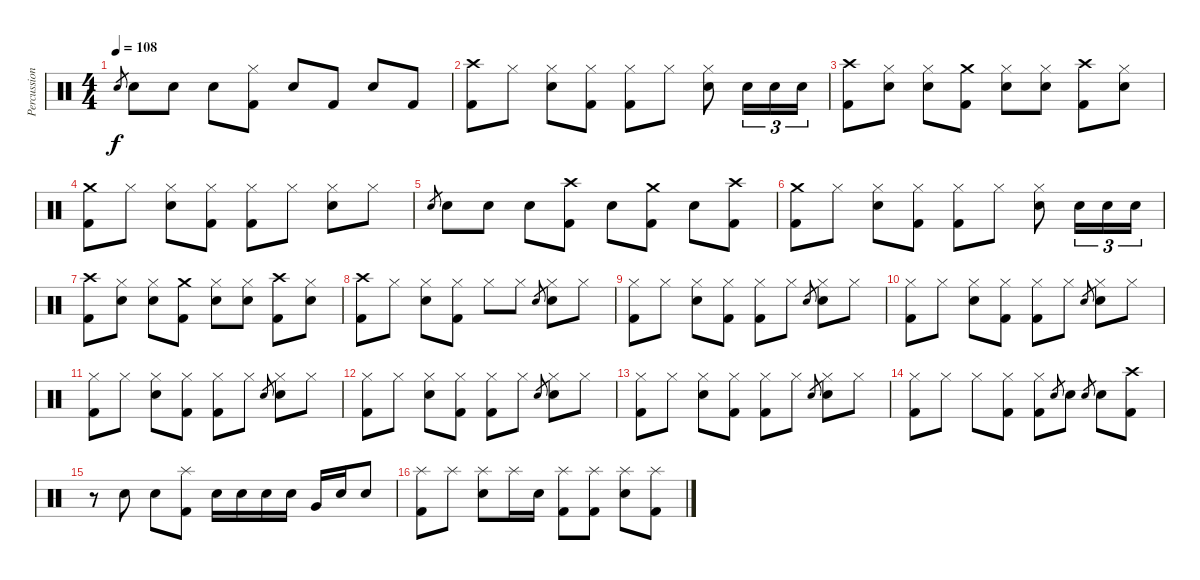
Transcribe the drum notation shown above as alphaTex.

\track ("Percussion" "Percussion") {instrument percussion}
\staff {score}
\articulation defaults
\ts (4 4)
\tempo 108
\clef neutral
\ks c "Snare (hit) 2".8{gr dy f} "Snare (hit) 2".8 "Snare (hit) 2".8 "Snare (hit) 2".8
("Kick (hit) 2" "Hi-Hat (closed)").8 "Snare (hit) 2".8 "Kick (hit) 2".8 "Snare (hit) 2".8 "Kick (hit) 2".8 |
("Kick (hit) 2" "Crash high (hit)").8 "Hi-Hat (closed)".8 ("Snare (hit) 2" "Hi-Hat (closed)").8 ("Kick (hit) 2" "Hi-Hat (closed)").8 ("Kick (hit) 2" "Hi-Hat (closed)").8 "Hi-Hat (closed)".8 ("Snare (hit) 2" "Hi-Hat (closed)").8 "Snare (hit) 2".16{tu (3 2)} "Snare (hit) 2".16{tu (3 2)} "Snare (hit) 2".16{tu (3 2)} |
("Kick (hit) 2" "Crash high (hit)").8 ("Snare (hit) 2" "Hi-Hat (closed)").8 ("Snare (hit) 2" "Hi-Hat (closed)").8 ("Kick (hit) 2" "Crash medium (hit)").8 ("Snare (hit) 2" "Hi-Hat (closed)").8 ("Snare (hit) 2" "Hi-Hat (closed)").8 ("Kick (hit) 2" "Crash high (hit)").8 ("Snare (hit) 2" "Hi-Hat (closed)").8 |
("Kick (hit) 2" "Crash medium (hit)").8 "Hi-Hat (closed)".8 ("Snare (hit) 2" "Hi-Hat (closed)").8 ("Kick (hit) 2" "Hi-Hat (closed)").8 ("Kick (hit) 2" "Hi-Hat (closed)").8 "Hi-Hat (closed)".8 ("Snare (hit) 2" "Hi-Hat (closed)").8 "Hi-Hat (closed)".8 |
"Snare (hit) 2".8{gr} "Snare (hit) 2".8 "Snare (hit) 2".8 "Snare (hit) 2".8 ("Kick (hit) 2" "Crash high (hit)").8 "Snare (hit) 2".8 ("Kick (hit) 2" "Crash medium (hit)").8 "Snare (hit) 2".8 ("Kick (hit) 2" "Crash high (hit)").8 |
("Kick (hit) 2" "Crash medium (hit)").8 "Hi-Hat (closed)".8 ("Snare (hit) 2" "Hi-Hat (closed)").8 ("Kick (hit) 2" "Hi-Hat (closed)").8 ("Kick (hit) 2" "Hi-Hat (closed)").8 "Hi-Hat (closed)".8 ("Snare (hit) 2" "Hi-Hat (closed)").8 "Snare (hit) 2".16{tu (3 2)} "Snare (hit) 2".16{tu (3 2)} "Snare (hit) 2".16{tu (3 2)} |
("Kick (hit) 2" "Crash high (hit)").8 ("Snare (hit) 2" "Hi-Hat (closed)").8 ("Snare (hit) 2" "Hi-Hat (closed)").8 ("Kick (hit) 2" "Crash medium (hit)").8 ("Snare (hit) 2" "Hi-Hat (closed)").8 ("Snare (hit) 2" "Hi-Hat (closed)").8 ("Kick (hit) 2" "Crash high (hit)").8 ("Snare (hit) 2" "Hi-Hat (closed)").8 |
("Kick (hit) 2" "Crash high (hit)").8 "Hi-Hat (closed)".8 ("Snare (hit) 2" "Hi-Hat (closed)").8 ("Kick (hit) 2" "Hi-Hat (closed)").8 "Hi-Hat (closed)".8 "Hi-Hat (closed)".8 "Snare (hit) 2".8{gr} ("Snare (hit) 2" "Hi-Hat (closed)").8 "Hi-Hat (closed)".8 |
("Kick (hit) 2" "Hi-Hat (closed)").8 "Hi-Hat (closed)".8 ("Snare (hit) 2" "Hi-Hat (closed)").8 ("Kick (hit) 2" "Hi-Hat (closed)").8 ("Kick (hit) 2" "Hi-Hat (closed)").8 "Hi-Hat (closed)".8 "Snare (hit) 2".8{gr} ("Snare (hit) 2" "Hi-Hat (closed)").8 "Hi-Hat (closed)".8 |
("Kick (hit) 2" "Hi-Hat (closed)").8 "Hi-Hat (closed)".8 ("Snare (hit) 2" "Hi-Hat (closed)").8 ("Kick (hit) 2" "Hi-Hat (closed)").8 ("Kick (hit) 2" "Hi-Hat (closed)").8 "Hi-Hat (closed)".8 "Snare (hit) 2".8{gr} ("Snare (hit) 2" "Hi-Hat (closed)").8 "Hi-Hat (closed)".8 |
("Kick (hit) 2" "Hi-Hat (closed)").8 "Hi-Hat (closed)".8 ("Snare (hit) 2" "Hi-Hat (closed)").8 ("Kick (hit) 2" "Hi-Hat (closed)").8 ("Kick (hit) 2" "Hi-Hat (closed)").8 "Hi-Hat (closed)".8 "Snare (hit) 2".8{gr} ("Snare (hit) 2" "Hi-Hat (closed)").8 "Hi-Hat (closed)".8 |
("Kick (hit) 2" "Hi-Hat (closed)").8 "Hi-Hat (closed)".8 ("Snare (hit) 2" "Hi-Hat (closed)").8 ("Kick (hit) 2" "Hi-Hat (closed)").8 ("Kick (hit) 2" "Hi-Hat (closed)").8 "Hi-Hat (closed)".8 "Snare (hit) 2".8{gr} ("Snare (hit) 2" "Hi-Hat (closed)").8 "Hi-Hat (closed)".8 |
("Kick (hit) 2" "Hi-Hat (closed)").8 "Hi-Hat (closed)".8 ("Snare (hit) 2" "Hi-Hat (closed)").8 ("Kick (hit) 2" "Hi-Hat (closed)").8 ("Kick (hit) 2" "Hi-Hat (closed)").8 "Hi-Hat (closed)".8 "Snare (hit) 2".8{gr} ("Snare (hit) 2" "Hi-Hat (closed)").8 "Hi-Hat (closed)".8 |
("Kick (hit) 2" "Hi-Hat (closed)").8 "Hi-Hat (closed)".8 "Hi-Hat (closed)".8 ("Kick (hit) 2" "Hi-Hat (closed)").8 ("Kick (hit) 2" "Hi-Hat (closed)").8 "Snare (hit) 2".8{gr} "Snare (hit) 2".8 "Snare (hit) 2".8{gr} "Snare (hit) 2".8 ("Kick (hit) 2" "Crash high (hit)").8 |
r.8 "Snare (hit) 2".8 "Snare (hit) 2".8 ("Kick (hit) 2" "Splash (hit)").8 "Snare (hit) 2".16 "Snare (hit) 2".16 "Snare (hit) 2".16 "Snare (hit) 2".16 "Very Low Tom (hit)".16 "Snare (hit) 2".16 "Snare (hit) 2".8 |
("Kick (hit) 2" "Splash (hit)").8 "Splash (hit)".8 ("Snare (hit) 2" "Splash (hit)").8 "Splash (hit)".16 "Snare (hit) 2".16 ("Kick (hit) 2" "Splash (hit)").8 ("Kick (hit) 2" "Splash (hit)").8 ("Snare (hit) 2" "Splash (hit)").8 ("Kick (hit) 2" "Splash (hit)").8
